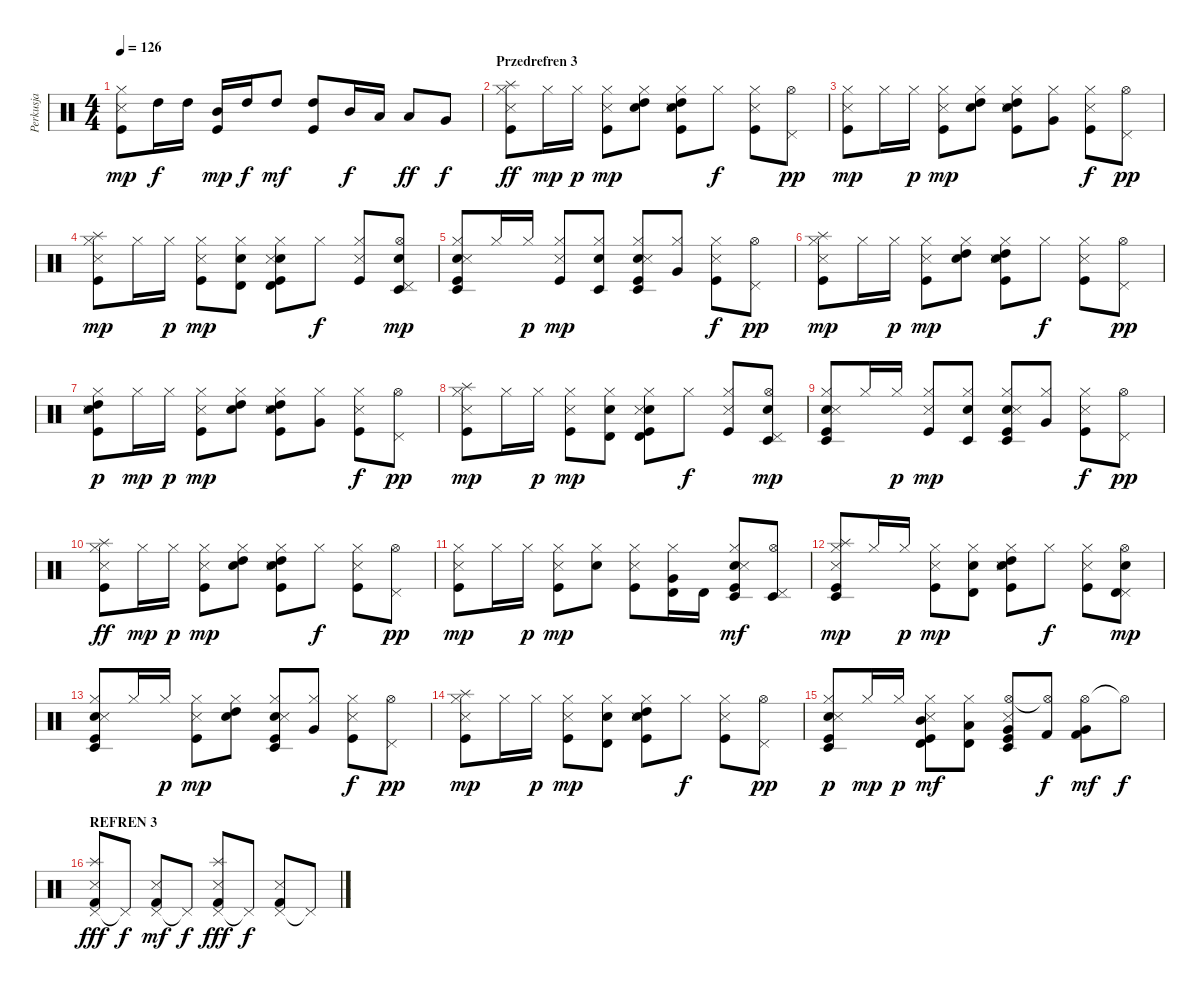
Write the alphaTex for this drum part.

\track ("Perkusja" "Perkusja") {instrument percussion}
\staff {score}
\articulation defaults
\ts (4 4)
\tempo 126
\clef neutral
\ks c
("Hi-Hat (closed)" "Kick (hit)" "Snare (side stick) 3").8{dy mp} "High Tom (hit)".16{dy f} "High Tom (hit)".16 ("Kick (hit)" "Mid Tom (hit)").16{dy mp} "High Tom (hit)".16{dy f} "High Tom (hit)".8{dy mf} ("Kick (hit)" "High Tom (hit)").8 "Mid Tom (hit)".16{dy f} "Low Tom (hit)".16 "Low Tom (hit)".8{dy ff} "Very Low Tom (hit)".8{dy f} |
\section ("" "Przedrefren 3")
("Hi-Hat (closed)" "Kick (hit)" "Splash (hit)" "Snare (side stick) 3").8{dy ff} "Hi-Hat (closed)".16{dy mp} "Hi-Hat (closed)".16{dy p} ("Hi-Hat (closed)" "Kick (hit)" "Snare (side stick) 3").8{dy mp} ("Hi-Hat (closed)" "High Tom (hit)" "Electric Snare (hit)").8 ("Hi-Hat (closed)" "Kick (hit)" "High Tom (hit)" "Electric Snare (hit)" "Snare (side stick) 3").8 "Hi-Hat (closed)".8{dy f} ("Hi-Hat (closed)" "Kick (hit)" "Snare (side stick) 3").8 ("Hi-Hat (open)" "Pedal Hi-Hat (hit)").8{dy pp} |
("Hi-Hat (closed)" "Kick (hit)" "Snare (side stick) 3").8{dy mp} "Hi-Hat (closed)".16 "Hi-Hat (closed)".16{dy p} ("Hi-Hat (closed)" "Kick (hit)" "Snare (side stick) 3").8{dy mp} ("Hi-Hat (closed)" "High Tom (hit)" "Electric Snare (hit)").8 ("Hi-Hat (closed)" "Kick (hit)" "High Tom (hit)" "Electric Snare (hit)" "Snare (side stick) 3").8 ("Hi-Hat (closed)" "Very Low Tom (hit)").8 ("Hi-Hat (closed)" "Kick (hit)" "Snare (side stick) 3").8{dy f} ("Hi-Hat (open)" "Pedal Hi-Hat (hit)").8{dy pp} |
("Hi-Hat (closed)" "Kick (hit)" "Splash (hit)" "Snare (side stick) 3").8{dy mp} "Hi-Hat (closed)".16 "Hi-Hat (closed)".16{dy p} ("Hi-Hat (closed)" "Kick (hit)" "Snare (side stick) 3").8{dy mp} ("Hi-Hat (closed)" "Timbale high (hit)" "Electric Snare (hit)").8 ("Hi-Hat (closed)" "Kick (hit)" "Timbale high (hit)" "Electric Snare (hit)" "Snare (side stick) 3").8 "Hi-Hat (closed)".8{dy f} ("Hi-Hat (closed)" "Kick (hit)" "Snare (side stick) 3").8 ("Hi-Hat (open)" "Pedal Hi-Hat (hit)" "Timbale low (hit)" "Electric Snare (hit)").8{dy mp} |
("Hi-Hat (closed)" "Kick (hit)" "Timbale low (hit)" "Electric Snare (hit)" "Snare (side stick) 3").8 "Hi-Hat (closed)".16 "Hi-Hat (closed)".16{dy p} ("Hi-Hat (closed)" "Kick (hit)" "Snare (side stick) 3").8{dy mp} ("Hi-Hat (closed)" "Timbale low (hit)" "Electric Snare (hit)").8 ("Hi-Hat (closed)" "Kick (hit)" "Timbale low (hit)" "Electric Snare (hit)" "Snare (side stick) 3").8 ("Hi-Hat (closed)" "Very Low Tom (hit)").8 ("Hi-Hat (closed)" "Kick (hit)" "Snare (side stick) 3").8{dy f} ("Hi-Hat (open)" "Pedal Hi-Hat (hit)").8{dy pp} |
("Hi-Hat (closed)" "Kick (hit)" "Splash (hit)" "Snare (side stick) 3").8{dy mp} "Hi-Hat (closed)".16 "Hi-Hat (closed)".16{dy p} ("Hi-Hat (closed)" "Kick (hit)" "Snare (side stick) 3").8{dy mp} ("Hi-Hat (closed)" "High Tom (hit)" "Electric Snare (hit)").8 ("Hi-Hat (closed)" "Kick (hit)" "High Tom (hit)" "Electric Snare (hit)" "Snare (side stick) 3").8 "Hi-Hat (closed)".8{dy f} ("Hi-Hat (closed)" "Kick (hit)" "Snare (side stick) 3").8 ("Hi-Hat (open)" "Pedal Hi-Hat (hit)").8{dy pp} |
("Hi-Hat (closed)" "Kick (hit)" "High Tom (hit)" "Electric Snare (hit)" "Snare (side stick) 3").8{dy p} "Hi-Hat (closed)".16{dy mp} "Hi-Hat (closed)".16{dy p} ("Hi-Hat (closed)" "Kick (hit)" "Snare (side stick) 3").8{dy mp} ("Hi-Hat (closed)" "High Tom (hit)" "Electric Snare (hit)").8 ("Hi-Hat (closed)" "Kick (hit)" "High Tom (hit)" "Electric Snare (hit)" "Snare (side stick) 3").8 ("Hi-Hat (closed)" "Very Low Tom (hit)").8 ("Hi-Hat (closed)" "Kick (hit)" "Snare (side stick) 3").8{dy f} ("Hi-Hat (open)" "Pedal Hi-Hat (hit)").8{dy pp} |
("Hi-Hat (closed)" "Kick (hit)" "Splash (hit)" "Snare (side stick) 3").8{dy mp} "Hi-Hat (closed)".16 "Hi-Hat (closed)".16{dy p} ("Hi-Hat (closed)" "Kick (hit)" "Snare (side stick) 3").8{dy mp} ("Hi-Hat (closed)" "Timbale high (hit)" "Electric Snare (hit)").8 ("Hi-Hat (closed)" "Kick (hit)" "Timbale high (hit)" "Electric Snare (hit)" "Snare (side stick) 3").8 "Hi-Hat (closed)".8{dy f} ("Hi-Hat (closed)" "Kick (hit)" "Snare (side stick) 3").8 ("Hi-Hat (open)" "Pedal Hi-Hat (hit)" "Timbale low (hit)" "Electric Snare (hit)").8{dy mp} |
("Hi-Hat (closed)" "Kick (hit)" "Timbale low (hit)" "Electric Snare (hit)" "Snare (side stick) 3").8 "Hi-Hat (closed)".16 "Hi-Hat (closed)".16{dy p} ("Hi-Hat (closed)" "Kick (hit)" "Snare (side stick) 3").8{dy mp} ("Hi-Hat (closed)" "Timbale low (hit)" "Electric Snare (hit)").8 ("Hi-Hat (closed)" "Kick (hit)" "Timbale low (hit)" "Electric Snare (hit)" "Snare (side stick) 3").8 ("Hi-Hat (closed)" "Very Low Tom (hit)").8 ("Hi-Hat (closed)" "Kick (hit)" "Snare (side stick) 3").8{dy f} ("Hi-Hat (open)" "Pedal Hi-Hat (hit)").8{dy pp} |
("Hi-Hat (closed)" "Kick (hit)" "Splash (hit)" "Snare (side stick) 3").8{dy ff} "Hi-Hat (closed)".16{dy mp} "Hi-Hat (closed)".16{dy p} ("Hi-Hat (closed)" "Kick (hit)" "Snare (side stick) 3").8{dy mp} ("Hi-Hat (closed)" "High Tom (hit)" "Electric Snare (hit)").8 ("Hi-Hat (closed)" "Kick (hit)" "High Tom (hit)" "Electric Snare (hit)" "Snare (side stick) 3").8 "Hi-Hat (closed)".8{dy f} ("Hi-Hat (closed)" "Kick (hit)" "Snare (side stick) 3").8 ("Hi-Hat (open)" "Pedal Hi-Hat (hit)").8{dy pp} |
("Hi-Hat (closed)" "Kick (hit)" "Snare (side stick) 3").8{dy mp} "Hi-Hat (closed)".16 "Hi-Hat (closed)".16{dy p} ("Hi-Hat (closed)" "Kick (hit)" "Snare (side stick) 3").8{dy mp} ("Hi-Hat (closed)" "Electric Snare (hit)").8 ("Hi-Hat (closed)" "Kick (hit)" "Snare (side stick) 3").8 ("Hi-Hat (closed)" "Very Low Tom (hit)" "Timbale high (hit)").16 "Timbale high (hit)".16 ("Hi-Hat (closed)" "Kick (hit)" "Timbale low (hit)" "Electric Snare (hit)" "Snare (side stick) 3").8{dy mf} ("Hi-Hat (open)" "Pedal Hi-Hat (hit)" "Timbale low (hit)").8 |
("Hi-Hat (closed)" "Kick (hit)" "Timbale low (hit)" "Splash (hit)" "Snare (side stick) 3").8{dy mp} "Hi-Hat (closed)".16 "Hi-Hat (closed)".16{dy p} ("Hi-Hat (closed)" "Kick (hit)" "Snare (side stick) 3").8{dy mp} ("Hi-Hat (closed)" "Timbale high (hit)" "Electric Snare (hit)").8 ("Hi-Hat (closed)" "Kick (hit)" "High Tom (hit)" "Electric Snare (hit)" "Snare (side stick) 3").8 "Hi-Hat (closed)".8{dy f} ("Hi-Hat (closed)" "Kick (hit)" "Snare (side stick) 3").8 ("Hi-Hat (open)" "Pedal Hi-Hat (hit)" "Timbale high (hit)" "Electric Snare (hit)").8{dy mp} |
("Hi-Hat (closed)" "Kick (hit)" "Timbale low (hit)" "Electric Snare (hit)" "Snare (side stick) 3").8 "Hi-Hat (closed)".16 "Hi-Hat (closed)".16{dy p} ("Hi-Hat (closed)" "Kick (hit)" "Snare (side stick) 3").8{dy mp} ("Hi-Hat (closed)" "High Tom (hit)" "Electric Snare (hit)").8 ("Hi-Hat (closed)" "Kick (hit)" "Timbale low (hit)" "Electric Snare (hit)" "Snare (side stick) 3").8 ("Hi-Hat (closed)" "Very Low Tom (hit)").8 ("Hi-Hat (closed)" "Kick (hit)" "Snare (side stick) 3").8{dy f} ("Hi-Hat (open)" "Pedal Hi-Hat (hit)").8{dy pp} |
("Hi-Hat (closed)" "Kick (hit)" "Splash (hit)" "Snare (side stick) 3").8{dy mp} "Hi-Hat (closed)".16 "Hi-Hat (closed)".16{dy p} ("Hi-Hat (closed)" "Kick (hit)" "Snare (side stick) 3").8{dy mp} ("Hi-Hat (closed)" "Timbale high (hit)" "Electric Snare (hit)").8 ("Hi-Hat (closed)" "Kick (hit)" "High Tom (hit)" "Electric Snare (hit)" "Snare (side stick) 3").8 "Hi-Hat (closed)".8{dy f} ("Hi-Hat (closed)" "Kick (hit)" "Snare (side stick) 3").8 ("Hi-Hat (open)" "Pedal Hi-Hat (hit)").8{dy pp} |
("Hi-Hat (closed)" "Kick (hit)" "Timbale low (hit)" "Electric Snare (hit)" "Snare (side stick) 3").8{dy p} "Hi-Hat (closed)".16{dy mp} "Hi-Hat (closed)".16{dy p} ("Hi-Hat (closed)" "Kick (hit)" "Timbale high (hit)" "Mid Tom (hit)" "Snare (side stick) 3").8{dy mf} ("Hi-Hat (closed)" "Timbale high (hit)" "Low Tom (hit)").8 ("Hi-Hat (open)" "Kick (hit)" "Timbale low (hit)" "Very Low Tom (hit)" "Snare (side stick) 3").8 ("Hi-Hat (open)"{t} "Kick (hit) 2").8{dy f} ("Hi-Hat (open)" "Kick (hit) 2" "Very Low Tom (hit)").8{dy mf} "Hi-Hat (open)"{t}.8{dy f} |
\section ("" "REFREN 3")
("Pedal Hi-Hat (hit)" "Kick (hit) 2" "Splash (hit)" "Snare (side stick) 3").8{dy fff} "Pedal Hi-Hat (hit)"{t}.8{dy f} ("Pedal Hi-Hat (hit)" "Kick (hit) 2" "Snare (side stick) 3").8{dy mf} "Pedal Hi-Hat (hit)"{t}.8{dy f} ("Pedal Hi-Hat (hit)" "Kick (hit) 2" "Splash (hit)" "Snare (side stick) 3").8{dy fff} "Pedal Hi-Hat (hit)"{t}.8{dy f} ("Pedal Hi-Hat (hit)" "Kick (hit) 2" "Snare (side stick) 3").8 "Pedal Hi-Hat (hit)"{t}.8
